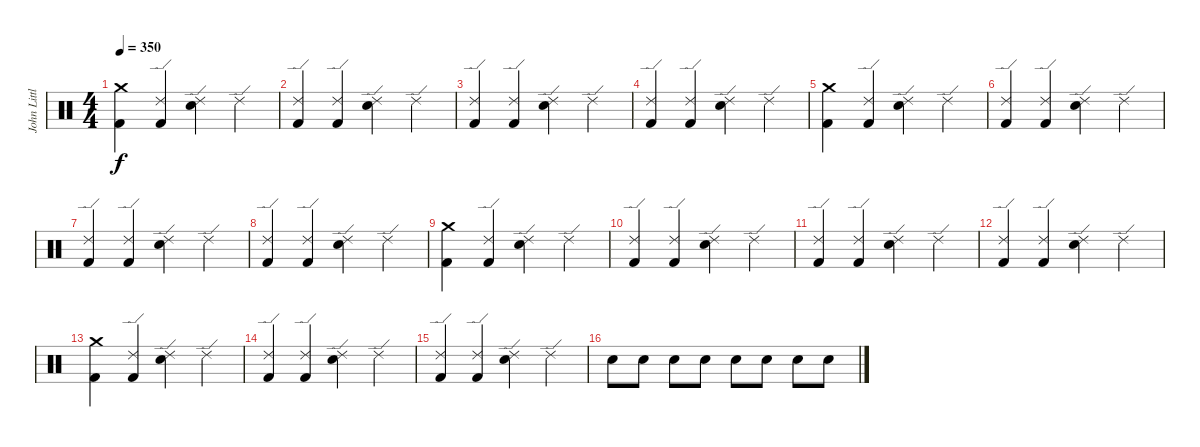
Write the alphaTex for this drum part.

\track ("John Littler - Drums" "John Littl") {instrument percussion}
\staff {score}
\articulation defaults
\ts (4 4)
\tempo 350
\clef neutral
\ks c
("Crash medium (hit)" "Kick (hit) 2").4{dy f} ("Ride (edge) 2" "Kick (hit) 2").4 ("Ride (edge) 2" "Snare (hit) 2").4 "Ride (edge) 2".4 |
("Ride (edge) 2" "Kick (hit) 2").4 ("Ride (edge) 2" "Kick (hit) 2").4 ("Ride (edge) 2" "Snare (hit) 2").4 "Ride (edge) 2".4 |
("Ride (edge) 2" "Kick (hit) 2").4 ("Ride (edge) 2" "Kick (hit) 2").4 ("Ride (edge) 2" "Snare (hit) 2").4 "Ride (edge) 2".4 |
("Ride (edge) 2" "Kick (hit) 2").4 ("Ride (edge) 2" "Kick (hit) 2").4 ("Ride (edge) 2" "Snare (hit) 2").4 "Ride (edge) 2".4 |
("Crash medium (hit)" "Kick (hit) 2").4 ("Ride (edge) 2" "Kick (hit) 2").4 ("Ride (edge) 2" "Snare (hit) 2").4 "Ride (edge) 2".4 |
("Ride (edge) 2" "Kick (hit) 2").4 ("Ride (edge) 2" "Kick (hit) 2").4 ("Ride (edge) 2" "Snare (hit) 2").4 "Ride (edge) 2".4 |
("Ride (edge) 2" "Kick (hit) 2").4 ("Ride (edge) 2" "Kick (hit) 2").4 ("Ride (edge) 2" "Snare (hit) 2").4 "Ride (edge) 2".4 |
("Ride (edge) 2" "Kick (hit) 2").4 ("Ride (edge) 2" "Kick (hit) 2").4 ("Ride (edge) 2" "Snare (hit) 2").4 "Ride (edge) 2".4 |
("Crash medium (hit)" "Kick (hit) 2").4 ("Ride (edge) 2" "Kick (hit) 2").4 ("Ride (edge) 2" "Snare (hit) 2").4 "Ride (edge) 2".4 |
("Ride (edge) 2" "Kick (hit) 2").4 ("Ride (edge) 2" "Kick (hit) 2").4 ("Ride (edge) 2" "Snare (hit) 2").4 "Ride (edge) 2".4 |
("Ride (edge) 2" "Kick (hit) 2").4 ("Ride (edge) 2" "Kick (hit) 2").4 ("Ride (edge) 2" "Snare (hit) 2").4 "Ride (edge) 2".4 |
("Ride (edge) 2" "Kick (hit) 2").4 ("Ride (edge) 2" "Kick (hit) 2").4 ("Ride (edge) 2" "Snare (hit) 2").4 "Ride (edge) 2".4 |
("Crash medium (hit)" "Kick (hit) 2").4 ("Ride (edge) 2" "Kick (hit) 2").4 ("Ride (edge) 2" "Snare (hit) 2").4 "Ride (edge) 2".4 |
("Ride (edge) 2" "Kick (hit) 2").4 ("Ride (edge) 2" "Kick (hit) 2").4 ("Ride (edge) 2" "Snare (hit) 2").4 "Ride (edge) 2".4 |
("Ride (edge) 2" "Kick (hit) 2").4 ("Ride (edge) 2" "Kick (hit) 2").4 ("Ride (edge) 2" "Snare (hit) 2").4 "Ride (edge) 2".4 |
"Snare (hit) 2".8 "Snare (hit) 2".8 "Snare (hit) 2".8 "Snare (hit) 2".8 "Snare (hit) 2".8 "Snare (hit) 2".8 "Snare (hit) 2".8 "Snare (hit) 2".8
